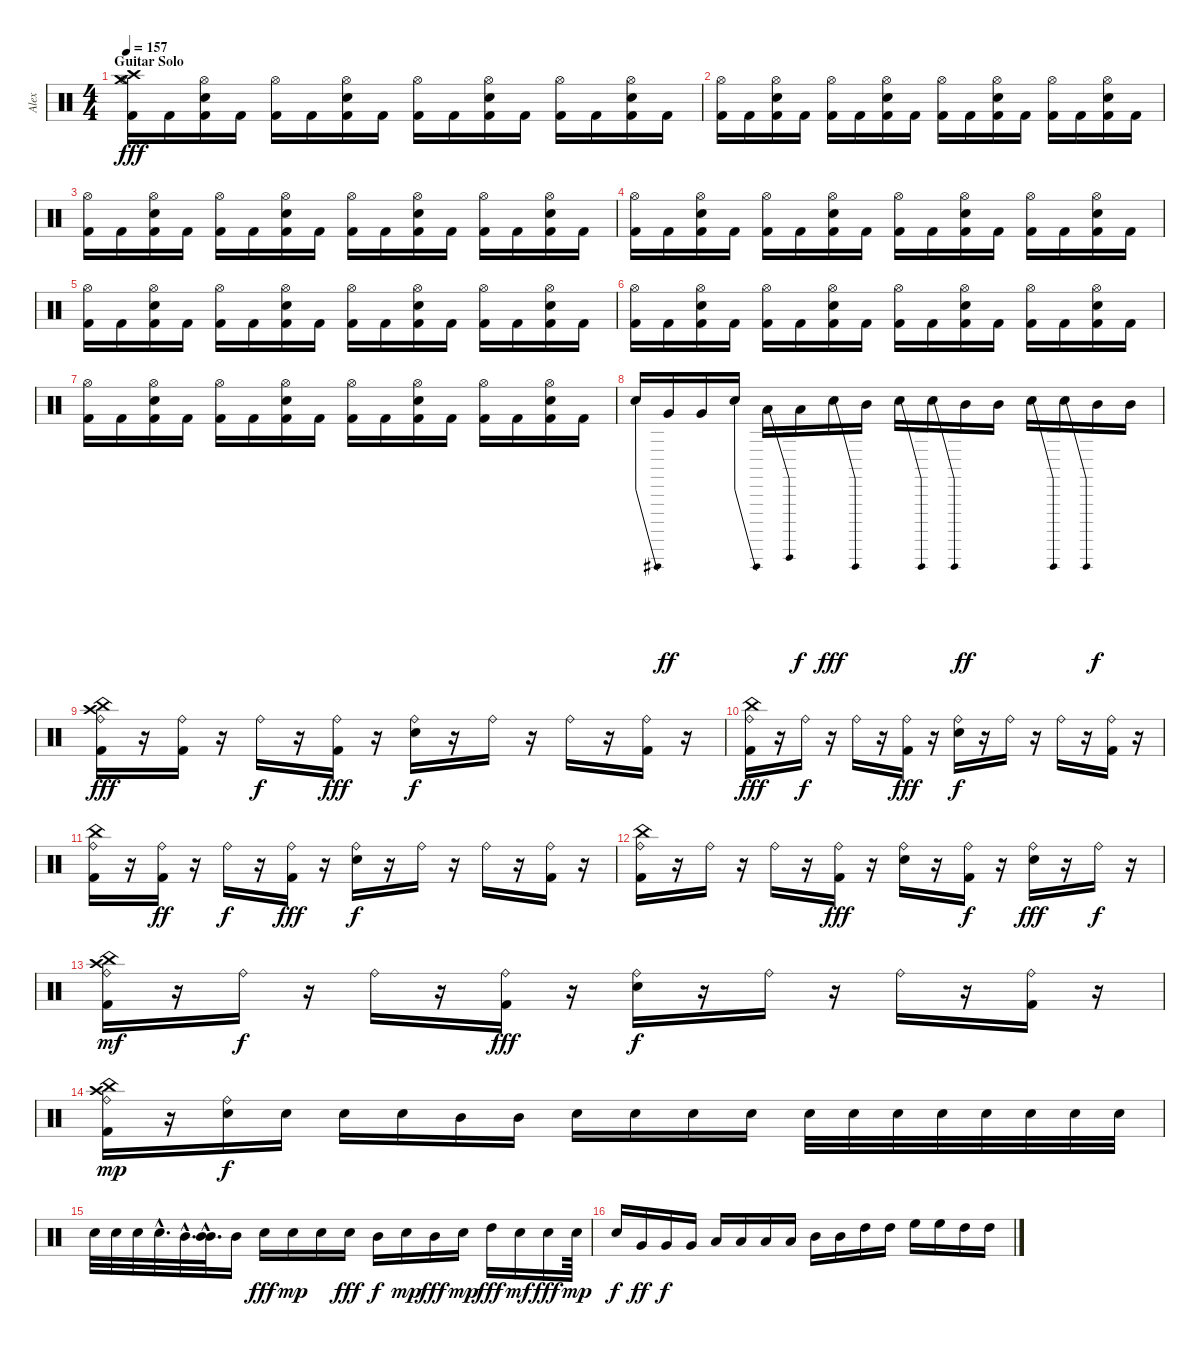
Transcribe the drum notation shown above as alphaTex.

\track ("Alex" "Alex") {instrument percussion}
\staff {score}
\articulation defaults
\ts (4 4)
\section ("" "Guitar Solo")
\tempo 157
\clef neutral
\ks c
("Crash medium (hit)" "Crash high (hit)" "Hi-Hat (open)" "Kick (hit) 2").16{dy fff} "Kick (hit) 2".16 ("Hi-Hat (open)" "Electric Snare (hit)" "Kick (hit) 2").16 "Kick (hit) 2".16 ("Hi-Hat (open)" "Kick (hit) 2").16 "Kick (hit) 2".16 ("Hi-Hat (open)" "Electric Snare (hit)" "Kick (hit) 2").16 "Kick (hit) 2".16 ("Hi-Hat (open)" "Kick (hit) 2").16 "Kick (hit) 2".16 ("Hi-Hat (open)" "Electric Snare (hit)" "Kick (hit) 2").16 "Kick (hit) 2".16 ("Hi-Hat (open)" "Kick (hit) 2").16 "Kick (hit) 2".16 ("Hi-Hat (open)" "Electric Snare (hit)" "Kick (hit) 2").16 "Kick (hit) 2".16 |
("Hi-Hat (open)" "Kick (hit) 2").16 "Kick (hit) 2".16 ("Hi-Hat (open)" "Electric Snare (hit)" "Kick (hit) 2").16 "Kick (hit) 2".16 ("Hi-Hat (open)" "Kick (hit) 2").16 "Kick (hit) 2".16 ("Hi-Hat (open)" "Electric Snare (hit)" "Kick (hit) 2").16 "Kick (hit) 2".16 ("Hi-Hat (open)" "Kick (hit) 2").16 "Kick (hit) 2".16 ("Hi-Hat (open)" "Electric Snare (hit)" "Kick (hit) 2").16 "Kick (hit) 2".16 ("Hi-Hat (open)" "Kick (hit) 2").16 "Kick (hit) 2".16 ("Hi-Hat (open)" "Electric Snare (hit)" "Kick (hit) 2").16 "Kick (hit) 2".16 |
("Hi-Hat (open)" "Kick (hit) 2").16 "Kick (hit) 2".16 ("Hi-Hat (open)" "Electric Snare (hit)" "Kick (hit) 2").16 "Kick (hit) 2".16 ("Hi-Hat (open)" "Kick (hit) 2").16 "Kick (hit) 2".16 ("Hi-Hat (open)" "Electric Snare (hit)" "Kick (hit) 2").16 "Kick (hit) 2".16 ("Hi-Hat (open)" "Kick (hit) 2").16 "Kick (hit) 2".16 ("Hi-Hat (open)" "Electric Snare (hit)" "Kick (hit) 2").16 "Kick (hit) 2".16 ("Hi-Hat (open)" "Kick (hit) 2").16 "Kick (hit) 2".16 ("Hi-Hat (open)" "Electric Snare (hit)" "Kick (hit) 2").16 "Kick (hit) 2".16 |
("Hi-Hat (open)" "Kick (hit) 2").16 "Kick (hit) 2".16 ("Hi-Hat (open)" "Electric Snare (hit)" "Kick (hit) 2").16 "Kick (hit) 2".16 ("Hi-Hat (open)" "Kick (hit) 2").16 "Kick (hit) 2".16 ("Hi-Hat (open)" "Electric Snare (hit)" "Kick (hit) 2").16 "Kick (hit) 2".16 ("Hi-Hat (open)" "Kick (hit) 2").16 "Kick (hit) 2".16 ("Hi-Hat (open)" "Electric Snare (hit)" "Kick (hit) 2").16 "Kick (hit) 2".16 ("Hi-Hat (open)" "Kick (hit) 2").16 "Kick (hit) 2".16 ("Hi-Hat (open)" "Electric Snare (hit)" "Kick (hit) 2").16 "Kick (hit) 2".16 |
("Hi-Hat (open)" "Kick (hit) 2").16 "Kick (hit) 2".16 ("Hi-Hat (open)" "Electric Snare (hit)" "Kick (hit) 2").16 "Kick (hit) 2".16 ("Hi-Hat (open)" "Kick (hit) 2").16 "Kick (hit) 2".16 ("Hi-Hat (open)" "Electric Snare (hit)" "Kick (hit) 2").16 "Kick (hit) 2".16 ("Hi-Hat (open)" "Kick (hit) 2").16 "Kick (hit) 2".16 ("Hi-Hat (open)" "Electric Snare (hit)" "Kick (hit) 2").16 "Kick (hit) 2".16 ("Hi-Hat (open)" "Kick (hit) 2").16 "Kick (hit) 2".16 ("Hi-Hat (open)" "Electric Snare (hit)" "Kick (hit) 2").16 "Kick (hit) 2".16 |
("Hi-Hat (open)" "Kick (hit) 2").16 "Kick (hit) 2".16 ("Hi-Hat (open)" "Electric Snare (hit)" "Kick (hit) 2").16 "Kick (hit) 2".16 ("Hi-Hat (open)" "Kick (hit) 2").16 "Kick (hit) 2".16 ("Hi-Hat (open)" "Electric Snare (hit)" "Kick (hit) 2").16 "Kick (hit) 2".16 ("Hi-Hat (open)" "Kick (hit) 2").16 "Kick (hit) 2".16 ("Hi-Hat (open)" "Electric Snare (hit)" "Kick (hit) 2").16 "Kick (hit) 2".16 ("Hi-Hat (open)" "Kick (hit) 2").16 "Kick (hit) 2".16 ("Hi-Hat (open)" "Electric Snare (hit)" "Kick (hit) 2").16 "Kick (hit) 2".16 |
("Hi-Hat (open)" "Kick (hit) 2").16 "Kick (hit) 2".16 ("Hi-Hat (open)" "Electric Snare (hit)" "Kick (hit) 2").16 "Kick (hit) 2".16 ("Hi-Hat (open)" "Kick (hit) 2").16 "Kick (hit) 2".16 ("Hi-Hat (open)" "Electric Snare (hit)" "Kick (hit) 2").16 "Kick (hit) 2".16 ("Hi-Hat (open)" "Kick (hit) 2").16 "Kick (hit) 2".16 ("Hi-Hat (open)" "Electric Snare (hit)" "Kick (hit) 2").16 "Kick (hit) 2".16 ("Hi-Hat (open)" "Kick (hit) 2").16 "Kick (hit) 2".16 ("Hi-Hat (open)" "Electric Snare (hit)" "Kick (hit) 2").16 "Kick (hit) 2".16 |
"Electric Snare (hit)"{be (bend 0 0 60 12)}.16 "Very Low Tom (hit)".16{dy ff} "Very Low Tom (hit)".16 "Electric Snare (hit)"{be (bend 0 0 60 12)}.16 "Low Tom (hit)"{be (bend 0 0 60 12)}.16 "Low Tom (hit)".16{dy f} "Electric Snare (hit)"{be (bend 0 0 60 12)}.16{dy fff} "Mid Tom (hit)".16 "Electric Snare (hit)"{be (bend 0 0 60 12)}.16 "Electric Snare (hit)"{be (bend 0 0 60 12)}.16 "Mid Tom (hit)".16{dy ff} "Mid Tom (hit)".16 "Electric Snare (hit)"{be (bend 0 0 60 12)}.16 "Electric Snare (hit)"{be (bend 0 0 60 12)}.16 "Mid Tom (hit)".16{dy f} "Mid Tom (hit)".16 |
("China (hit)" "Crash high (hit)" "Ride (bell)" "Kick (hit) 2").16{dy fff} r.16 ("Ride (bell)" "Kick (hit) 2").16 r.16 "Ride (bell)".16{dy f} r.16 ("Ride (bell)" "Kick (hit) 2").16{dy fff} r.16 ("Ride (bell)" "Electric Snare (hit)").16{dy f} r.16 "Ride (bell)".16 r.16 "Ride (bell)".16 r.16 ("Ride (bell)" "Kick (hit) 2").16 r.16 |
("China (hit)" "Ride (bell)" "Kick (hit) 2").16{dy fff} r.16 "Ride (bell)".16{dy f} r.16 "Ride (bell)".16 r.16 ("Ride (bell)" "Kick (hit) 2").16{dy fff} r.16 ("Ride (bell)" "Electric Snare (hit)").16{dy f} r.16 "Ride (bell)".16 r.16 "Ride (bell)".16 r.16 ("Ride (bell)" "Kick (hit) 2").16 r.16 |
("China (hit)" "Ride (bell)" "Kick (hit) 2").16 r.16 ("Ride (bell)" "Kick (hit) 2").16{dy ff} r.16 "Ride (bell)".16{dy f} r.16 ("Ride (bell)" "Kick (hit) 2").16{dy fff} r.16 ("Ride (bell)" "Electric Snare (hit)").16{dy f} r.16 "Ride (bell)".16 r.16 "Ride (bell)".16 r.16 ("Ride (bell)" "Kick (hit) 2").16 r.16 |
("China (hit)" "Ride (bell)" "Kick (hit) 2").16 r.16 "Ride (bell)".16 r.16 "Ride (bell)".16 r.16 ("Ride (bell)" "Kick (hit) 2").16{dy fff} r.16 ("Ride (bell)" "Electric Snare (hit)").16 r.16 ("Ride (bell)" "Kick (hit) 2").16{dy f} r.16 ("Ride (bell)" "Electric Snare (hit)").16{dy fff} r.16 "Ride (bell)".16{dy f} r.16 |
("China (hit)" "Crash high (hit)" "Ride (bell)" "Kick (hit) 2").16{dy mf} r.16 "Ride (bell)".16{dy f} r.16 "Ride (bell)".16 r.16 ("Ride (bell)" "Kick (hit) 2").16{dy fff} r.16 ("Ride (bell)" "Electric Snare (hit)").16{dy f} r.16 "Ride (bell)".16 r.16 "Ride (bell)".16 r.16 ("Ride (bell)" "Kick (hit) 2").16 r.16 |
("Crash high (hit)" "China (hit)" "Ride (bell)" "Kick (hit) 2").16{dy mp} r.16 ("Ride (bell)" "Electric Snare (hit)").16{dy f} "Electric Snare (hit)".16 "Electric Snare (hit)".16 "Electric Snare (hit)".16 "Mid Tom (hit)".16 "Mid Tom (hit)".16 "Electric Snare (hit)".16 "Electric Snare (hit)".16 "Electric Snare (hit)".16 "Electric Snare (hit)".16 "Electric Snare (hit)".32 "Electric Snare (hit)".32 "Electric Snare (hit)".32 "Electric Snare (hit)".32 "Electric Snare (hit)".32 "Electric Snare (hit)".32 "Electric Snare (hit)".32 "Electric Snare (hit)".32 |
"Electric Snare (hit)".32 "Electric Snare (hit)".32 "Electric Snare (hit)".32 "Electric Snare (hit)"{hac}.32{d} "Mid Tom (hit)"{hac}.32{d} ("Mid Tom (hit)"{hac} "Mid Tom (hit)"{hac}).32{d} "Mid Tom (hit)".16 "Electric Snare (hit)".16{dy fff} "Electric Snare (hit)".16{dy mp} "Electric Snare (hit)".16 "Electric Snare (hit)".16{dy fff} "Mid Tom (hit)".16{dy f} "Electric Snare (hit)".16{dy mp} "Mid Tom (hit)".16{dy fff} "Electric Snare (hit)".16{dy mp} "High Tom (hit)".16{dy fff} "Electric Snare (hit)".16{dy mf} "Electric Snare (hit)".16{dy fff} "Electric Snare (hit)".64{dy mp} |
"Electric Snare (hit)".16{dy f} "Very Low Tom (hit)".16{dy ff} "Very Low Tom (hit)".16{dy f} "Very Low Tom (hit)".16 "Low Tom (hit)".16 "Low Tom (hit)".16 "Low Tom (hit)".16 "Low Tom (hit)".16 "Mid Tom (hit)".16 "Mid Tom (hit)".16 "High Tom (hit)".16 "High Tom (hit)".16 "High Floor Tom (hit)".16 "High Floor Tom (hit)".16 "High Tom (hit)".16 "High Tom (hit)".16
